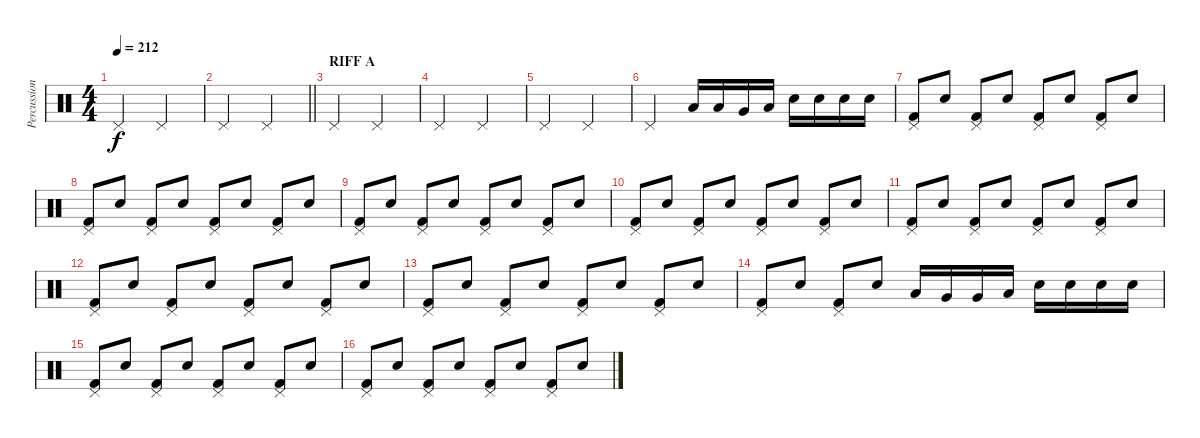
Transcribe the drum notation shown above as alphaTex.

\track ("Percussions" "Percussion") {instrument percussion}
\staff {score}
\articulation defaults
\ts (4 4)
\tempo 212
\clef neutral
\ks c "Pedal Hi-Hat (hit)".2{dy f} "Pedal Hi-Hat (hit)".2
|
\barLineRight lightlight "Pedal Hi-Hat (hit)".2 "Pedal Hi-Hat (hit)".2
|
\section ("" "RIFF A")
"Pedal Hi-Hat (hit)".2 "Pedal Hi-Hat (hit)".2 |
"Pedal Hi-Hat (hit)".2 "Pedal Hi-Hat (hit)".2 |
"Pedal Hi-Hat (hit)".2 "Pedal Hi-Hat (hit)".2 |
"Pedal Hi-Hat (hit)".2 "Low Tom (hit)".16 "Low Tom (hit)".16 "Very Low Tom (hit)".16 "Low Floor Tom (hit)".16 "Snare (hit) 2".16 "Snare (hit) 2".16 "Snare (hit) 2".16 "Snare (hit) 2".16 |
("Pedal Hi-Hat (hit)" "Kick (hit) 2").8 "Snare (hit) 2".8 ("Pedal Hi-Hat (hit)" "Kick (hit) 2").8 "Snare (hit) 2".8 ("Pedal Hi-Hat (hit)" "Kick (hit) 2").8 "Snare (hit) 2".8 ("Pedal Hi-Hat (hit)" "Kick (hit) 2").8 "Snare (hit) 2".8 |
("Pedal Hi-Hat (hit)" "Kick (hit) 2").8 "Snare (hit) 2".8 ("Pedal Hi-Hat (hit)" "Kick (hit) 2").8 "Snare (hit) 2".8 ("Pedal Hi-Hat (hit)" "Kick (hit) 2").8 "Snare (hit) 2".8 ("Pedal Hi-Hat (hit)" "Kick (hit) 2").8 "Snare (hit) 2".8 |
("Pedal Hi-Hat (hit)" "Kick (hit) 2").8 "Snare (hit) 2".8 ("Pedal Hi-Hat (hit)" "Kick (hit) 2").8 "Snare (hit) 2".8 ("Pedal Hi-Hat (hit)" "Kick (hit) 2").8 "Snare (hit) 2".8 ("Pedal Hi-Hat (hit)" "Kick (hit) 2").8 "Snare (hit) 2".8 |
("Pedal Hi-Hat (hit)" "Kick (hit) 2").8 "Snare (hit) 2".8 ("Pedal Hi-Hat (hit)" "Kick (hit) 2").8 "Snare (hit) 2".8 ("Pedal Hi-Hat (hit)" "Kick (hit) 2").8 "Snare (hit) 2".8 ("Pedal Hi-Hat (hit)" "Kick (hit) 2").8 "Snare (hit) 2".8 |
("Pedal Hi-Hat (hit)" "Kick (hit) 2").8 "Snare (hit) 2".8 ("Pedal Hi-Hat (hit)" "Kick (hit) 2").8 "Snare (hit) 2".8 ("Pedal Hi-Hat (hit)" "Kick (hit) 2").8 "Snare (hit) 2".8 ("Pedal Hi-Hat (hit)" "Kick (hit) 2").8 "Snare (hit) 2".8 |
("Pedal Hi-Hat (hit)" "Kick (hit) 2").8 "Snare (hit) 2".8 ("Pedal Hi-Hat (hit)" "Kick (hit) 2").8 "Snare (hit) 2".8 ("Pedal Hi-Hat (hit)" "Kick (hit) 2").8 "Snare (hit) 2".8 ("Pedal Hi-Hat (hit)" "Kick (hit) 2").8 "Snare (hit) 2".8 |
("Pedal Hi-Hat (hit)" "Kick (hit) 2").8 "Snare (hit) 2".8 ("Pedal Hi-Hat (hit)" "Kick (hit) 2").8 "Snare (hit) 2".8 ("Pedal Hi-Hat (hit)" "Kick (hit) 2").8 "Snare (hit) 2".8 ("Pedal Hi-Hat (hit)" "Kick (hit) 2").8 "Snare (hit) 2".8 |
("Pedal Hi-Hat (hit)" "Kick (hit) 2").8 "Snare (hit) 2".8 ("Pedal Hi-Hat (hit)" "Kick (hit) 2").8 "Snare (hit) 2".8 "Low Tom (hit)".16 "Very Low Tom (hit)".16 "Very Low Tom (hit)".16 "Low Floor Tom (hit)".16 "Snare (hit) 2".16 "Snare (hit) 2".16 "Snare (hit) 2".16 "Snare (hit) 2".16 |
("Pedal Hi-Hat (hit)" "Kick (hit) 2").8 "Snare (hit) 2".8 ("Pedal Hi-Hat (hit)" "Kick (hit) 2").8 "Snare (hit) 2".8 ("Pedal Hi-Hat (hit)" "Kick (hit) 2").8 "Snare (hit) 2".8 ("Pedal Hi-Hat (hit)" "Kick (hit) 2").8 "Snare (hit) 2".8 |
("Pedal Hi-Hat (hit)" "Kick (hit) 2").8 "Snare (hit) 2".8 ("Pedal Hi-Hat (hit)" "Kick (hit) 2").8 "Snare (hit) 2".8 ("Pedal Hi-Hat (hit)" "Kick (hit) 2").8 "Snare (hit) 2".8 ("Pedal Hi-Hat (hit)" "Kick (hit) 2").8 "Snare (hit) 2".8
